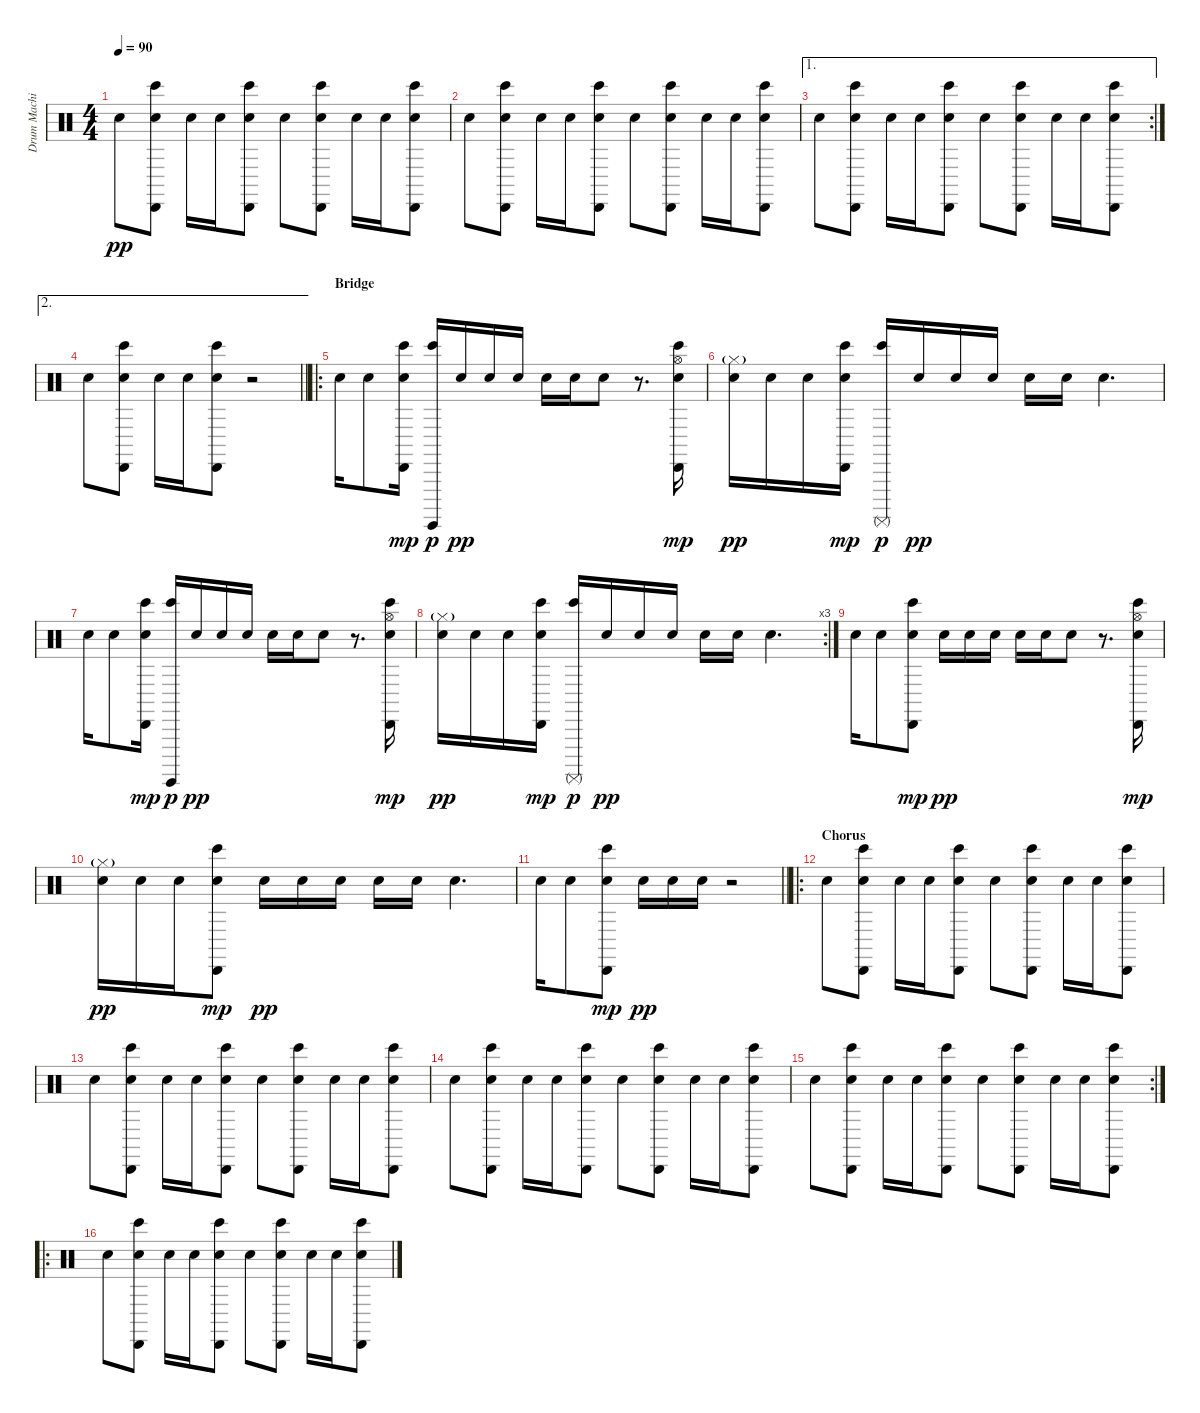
\track ("Drum Machine" "Drum Machi") {instrument percussion}
\staff {score}
\articulation defaults
\ts (4 4)
\tempo 90
\clef neutral
\ks c "Hand Clap (hit)".8{dy pp}
("Hand Clap (hit)" "Cabasa (hit)" "Bongo High (hit)").8 "Hand Clap (hit)".16 "Hand Clap (hit)".16 ("Hand Clap (hit)" "Cabasa (hit)" "Bongo High (hit)").8 "Hand Clap (hit)".8 ("Hand Clap (hit)" "Cabasa (hit)" "Bongo High (hit)").8 "Hand Clap (hit)".16 "Hand Clap (hit)".16 ("Hand Clap (hit)" "Cabasa (hit)" "Bongo High (hit)").8 |
"Hand Clap (hit)".8 ("Hand Clap (hit)" "Cabasa (hit)" "Bongo High (hit)").8 "Hand Clap (hit)".16 "Hand Clap (hit)".16 ("Hand Clap (hit)" "Cabasa (hit)" "Bongo High (hit)").8 "Hand Clap (hit)".8 ("Hand Clap (hit)" "Cabasa (hit)" "Bongo High (hit)").8 "Hand Clap (hit)".16 "Hand Clap (hit)".16 ("Hand Clap (hit)" "Cabasa (hit)" "Bongo High (hit)").8 |
\ae 1
\rc 2 "Hand Clap (hit)".8
("Hand Clap (hit)" "Cabasa (hit)" "Bongo High (hit)").8 "Hand Clap (hit)".16 "Hand Clap (hit)".16 ("Hand Clap (hit)" "Cabasa (hit)" "Bongo High (hit)").8 "Hand Clap (hit)".8 ("Hand Clap (hit)" "Cabasa (hit)" "Bongo High (hit)").8 "Hand Clap (hit)".16 "Hand Clap (hit)".16 ("Hand Clap (hit)" "Cabasa (hit)" "Bongo High (hit)").8 |
\ae 2
\barLineRight lightlight "Hand Clap (hit)".8
("Hand Clap (hit)" "Cabasa (hit)" "Bongo High (hit)").8 "Hand Clap (hit)".16 "Hand Clap (hit)".16 ("Hand Clap (hit)" "Cabasa (hit)" "Bongo High (hit)").8 r.2 |
\ro
\section ("" "Bridge")
"Hand Clap (hit)".16 "Hand Clap (hit)".8 ("Hand Clap (hit)" "Cabasa (hit)" "Bongo High (hit)").16{dy mp} ("Surdo (hit)" "Bongo High (hit)").16{dy p} "Hand Clap (hit)".16{dy pp} "Hand Clap (hit)".16 "Hand Clap (hit)".16 "Hand Clap (hit)".16 "Hand Clap (hit)".16 "Hand Clap (hit)".8 r.8{d} ("Hi-Hat (open)" "Hand Clap (hit)" "Cabasa (hit)" "Bongo High (hit)").16{dy mp} |
("Hi-Hat (closed)"{g} "Hand Clap (hit)").16{dy pp} "Hand Clap (hit)".16 "Hand Clap (hit)".16 ("Hand Clap (hit)" "Cabasa (hit)" "Bongo High (hit)").16{dy mp} ("Surdo (mute)" "Bongo High (hit)").16{dy p} "Hand Clap (hit)".16{dy pp} "Hand Clap (hit)".16 "Hand Clap (hit)".16 "Hand Clap (hit)".16 "Hand Clap (hit)".16 "Hand Clap (hit)".4{d} |
"Hand Clap (hit)".16 "Hand Clap (hit)".8 ("Hand Clap (hit)" "Cabasa (hit)" "Bongo High (hit)").16{dy mp} ("Surdo (hit)" "Bongo High (hit)").16{dy p} "Hand Clap (hit)".16{dy pp} "Hand Clap (hit)".16 "Hand Clap (hit)".16 "Hand Clap (hit)".16 "Hand Clap (hit)".16 "Hand Clap (hit)".8 r.8{d} ("Hi-Hat (open)" "Hand Clap (hit)" "Cabasa (hit)" "Bongo High (hit)").16{dy mp} |
\rc 3
("Hi-Hat (closed)"{g} "Hand Clap (hit)").16{dy pp} "Hand Clap (hit)".16 "Hand Clap (hit)".16 ("Hand Clap (hit)" "Cabasa (hit)" "Bongo High (hit)").16{dy mp} ("Surdo (mute)" "Bongo High (hit)").16{dy p} "Hand Clap (hit)".16{dy pp} "Hand Clap (hit)".16 "Hand Clap (hit)".16 "Hand Clap (hit)".16 "Hand Clap (hit)".16 "Hand Clap (hit)".4{d} |
"Hand Clap (hit)".16 "Hand Clap (hit)".8 ("Hand Clap (hit)" "Cabasa (hit)" "Bongo High (hit)").8{dy mp} "Hand Clap (hit)".16{dy pp} "Hand Clap (hit)".16 "Hand Clap (hit)".16 "Hand Clap (hit)".16 "Hand Clap (hit)".16 "Hand Clap (hit)".8 r.8{d} ("Hi-Hat (open)" "Hand Clap (hit)" "Cabasa (hit)" "Bongo High (hit)").16{dy mp} |
("Hi-Hat (closed)"{g} "Hand Clap (hit)").16{dy pp} "Hand Clap (hit)".16 "Hand Clap (hit)".16 ("Hand Clap (hit)" "Cabasa (hit)" "Bongo High (hit)").8{dy mp} "Hand Clap (hit)".16{dy pp} "Hand Clap (hit)".16 "Hand Clap (hit)".16 "Hand Clap (hit)".16 "Hand Clap (hit)".16 "Hand Clap (hit)".4{d} |
\barLineRight lightlight "Hand Clap (hit)".16 "Hand Clap (hit)".8
("Hand Clap (hit)" "Cabasa (hit)" "Bongo High (hit)").8{dy mp} "Hand Clap (hit)".16{dy pp} "Hand Clap (hit)".16 "Hand Clap (hit)".16 r.2 |
\ro
\section ("" "Chorus")
"Hand Clap (hit)".8 ("Hand Clap (hit)" "Cabasa (hit)" "Bongo High (hit)").8 "Hand Clap (hit)".16 "Hand Clap (hit)".16 ("Hand Clap (hit)" "Cabasa (hit)" "Bongo High (hit)").8 "Hand Clap (hit)".8 ("Hand Clap (hit)" "Cabasa (hit)" "Bongo High (hit)").8 "Hand Clap (hit)".16 "Hand Clap (hit)".16 ("Hand Clap (hit)" "Cabasa (hit)" "Bongo High (hit)").8 |
"Hand Clap (hit)".8 ("Hand Clap (hit)" "Cabasa (hit)" "Bongo High (hit)").8 "Hand Clap (hit)".16 "Hand Clap (hit)".16 ("Hand Clap (hit)" "Cabasa (hit)" "Bongo High (hit)").8 "Hand Clap (hit)".8 ("Hand Clap (hit)" "Cabasa (hit)" "Bongo High (hit)").8 "Hand Clap (hit)".16 "Hand Clap (hit)".16 ("Hand Clap (hit)" "Cabasa (hit)" "Bongo High (hit)").8 |
"Hand Clap (hit)".8 ("Hand Clap (hit)" "Cabasa (hit)" "Bongo High (hit)").8 "Hand Clap (hit)".16 "Hand Clap (hit)".16 ("Hand Clap (hit)" "Cabasa (hit)" "Bongo High (hit)").8 "Hand Clap (hit)".8 ("Hand Clap (hit)" "Cabasa (hit)" "Bongo High (hit)").8 "Hand Clap (hit)".16 "Hand Clap (hit)".16 ("Hand Clap (hit)" "Cabasa (hit)" "Bongo High (hit)").8 |
\rc 2 "Hand Clap (hit)".8
("Hand Clap (hit)" "Cabasa (hit)" "Bongo High (hit)").8 "Hand Clap (hit)".16 "Hand Clap (hit)".16 ("Hand Clap (hit)" "Cabasa (hit)" "Bongo High (hit)").8 "Hand Clap (hit)".8 ("Hand Clap (hit)" "Cabasa (hit)" "Bongo High (hit)").8 "Hand Clap (hit)".16 "Hand Clap (hit)".16 ("Hand Clap (hit)" "Cabasa (hit)" "Bongo High (hit)").8 |
\ro "Hand Clap (hit)".8
("Hand Clap (hit)" "Cabasa (hit)" "Bongo High (hit)").8 "Hand Clap (hit)".16 "Hand Clap (hit)".16 ("Hand Clap (hit)" "Cabasa (hit)" "Bongo High (hit)").8 "Hand Clap (hit)".8 ("Hand Clap (hit)" "Cabasa (hit)" "Bongo High (hit)").8 "Hand Clap (hit)".16 "Hand Clap (hit)".16 ("Hand Clap (hit)" "Cabasa (hit)" "Bongo High (hit)").8
